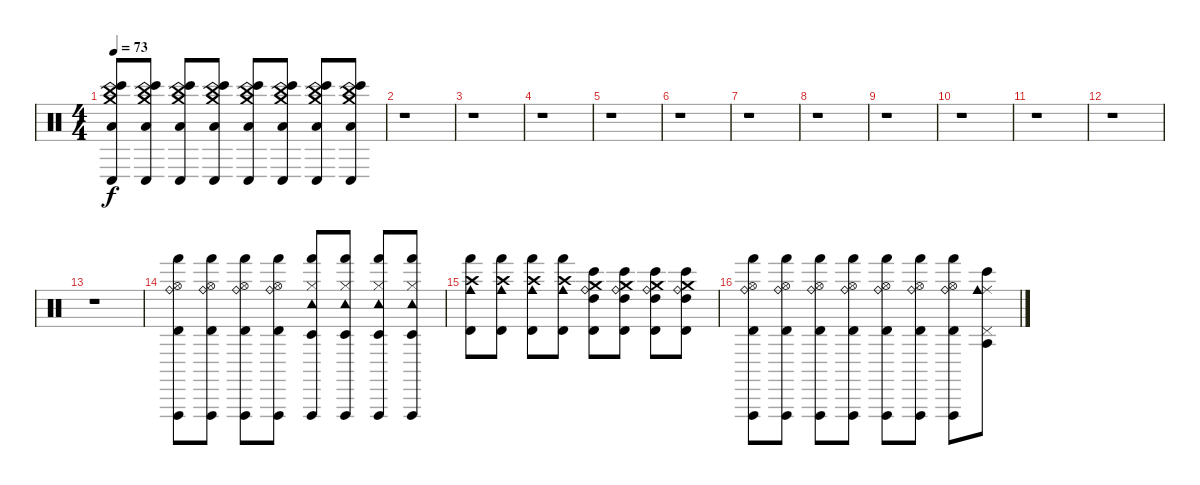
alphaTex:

\track "" {instrument percussion}
\staff {score}
\articulation defaults
\ts (4 4)
\tempo 73
\clef neutral
\ks c
("Conga low (hit)" "Bongo High (hit)" "Crash medium (hit)" "China (hit)" "Low Tom (hit)").8{dy f} ("China (hit)" "Bongo High (hit)" "Conga low (hit)" "Crash medium (hit)" "Low Tom (hit)").8 ("Crash medium (hit)" "Bongo High (hit)" "Conga low (hit)" "China (hit)" "Low Tom (hit)").8 ("China (hit)" "Crash medium (hit)" "Bongo High (hit)" "Conga low (hit)" "Low Tom (hit)").8 ("Bongo High (hit)" "Crash medium (hit)" "Conga low (hit)" "China (hit)" "Low Tom (hit)").8 ("Bongo High (hit)" "China (hit)" "Crash medium (hit)" "Conga low (hit)" "Low Tom (hit)").8 ("Bongo High (hit)" "Crash medium (hit)" "Conga low (hit)" "China (hit)" "Low Tom (hit)").8 ("Bongo High (hit)" "China (hit)" "Crash medium (hit)" "Conga low (hit)" "Low Tom (hit)").8 |
r.1 |
r.1 |
r.1 |
r.1 |
r.1 |
r.1 |
r.1 |
r.1 |
r.1 |
r.1 |
r.1 |
r.1 |
("Hi-Hat (open)" "Ride (bell)" "Vibraslap (hit)" "Hand (hit)" "Timbale high (hit)").8 ("Hi-Hat (open)" "Ride (bell)" "Vibraslap (hit)" "Hand (hit)" "Timbale high (hit)").8 ("Vibraslap (hit)" "Hand (hit)" "Timbale high (hit)" "Ride (bell)" "Hi-Hat (open)").8 ("Vibraslap (hit)" "Hand (hit)" "Timbale high (hit)" "Ride (bell)" "Hi-Hat (open)").8 ("Vibraslap (hit)" "Hand (hit)" "Timbale low (hit)" "Tambourine (hit)" "Hi-Hat (closed)").8 ("Vibraslap (hit)" "Hand (hit)" "Timbale low (hit)" "Tambourine (hit)" "Hi-Hat (closed)").8 ("Vibraslap (hit)" "Hand (hit)" "Timbale low (hit)" "Tambourine (hit)" "Hi-Hat (closed)").8 ("Vibraslap (hit)" "Hand (hit)" "Timbale low (hit)" "Tambourine (hit)" "Hi-Hat (closed)").8 |
("Crash high (hit)" "Cowbell medium (hit)" "Hand (hit)" "Timbale high (hit)").8 ("Crash high (hit)" "Cowbell medium (hit)" "Hand (hit)" "Timbale high (hit)").8 ("Crash high (hit)" "Cowbell medium (hit)" "Hand (hit)" "Timbale high (hit)").8 ("Crash high (hit)" "Cowbell medium (hit)" "Hand (hit)" "Timbale high (hit)").8 ("Ride (bell)" "Crash medium (hit)" "Bongo High (hit)" "High Tom (hit)" "Timbale high (hit)").8 ("Ride (bell)" "Crash medium (hit)" "High Tom (hit)" "Bongo High (hit)" "Timbale high (hit)").8 ("Ride (bell)" "Crash medium (hit)" "High Tom (hit)" "Bongo High (hit)" "Timbale high (hit)").8 ("Ride (bell)" "Crash medium (hit)" "High Tom (hit)" "Bongo High (hit)" "Timbale high (hit)").8 |
("Timbale high (hit)" "Hand (hit)" "Vibraslap (hit)" "Ride (bell)" "Hi-Hat (open)").8 ("Ride (bell)" "Vibraslap (hit)" "Hand (hit)" "Timbale high (hit)" "Hi-Hat (open)").8 ("Timbale high (hit)" "Hand (hit)" "Vibraslap (hit)" "Ride (bell)" "Hi-Hat (open)").8 ("Ride (bell)" "Vibraslap (hit)" "Hand (hit)" "Timbale high (hit)" "Hi-Hat (open)").8 ("Timbale high (hit)" "Hand (hit)" "Vibraslap (hit)" "Ride (bell)" "Hi-Hat (open)").8 ("Ride (bell)" "Vibraslap (hit)" "Hand (hit)" "Timbale high (hit)" "Hi-Hat (open)").8 ("Timbale high (hit)" "Hand (hit)" "Vibraslap (hit)" "Ride (bell)" "Hi-Hat (open)").8 ("Ride (middle)" "Cowbell medium (hit)" "Bongo High (hit)" "Agogo tow (hit)" "Pedal Hi-Hat (hit)").8
